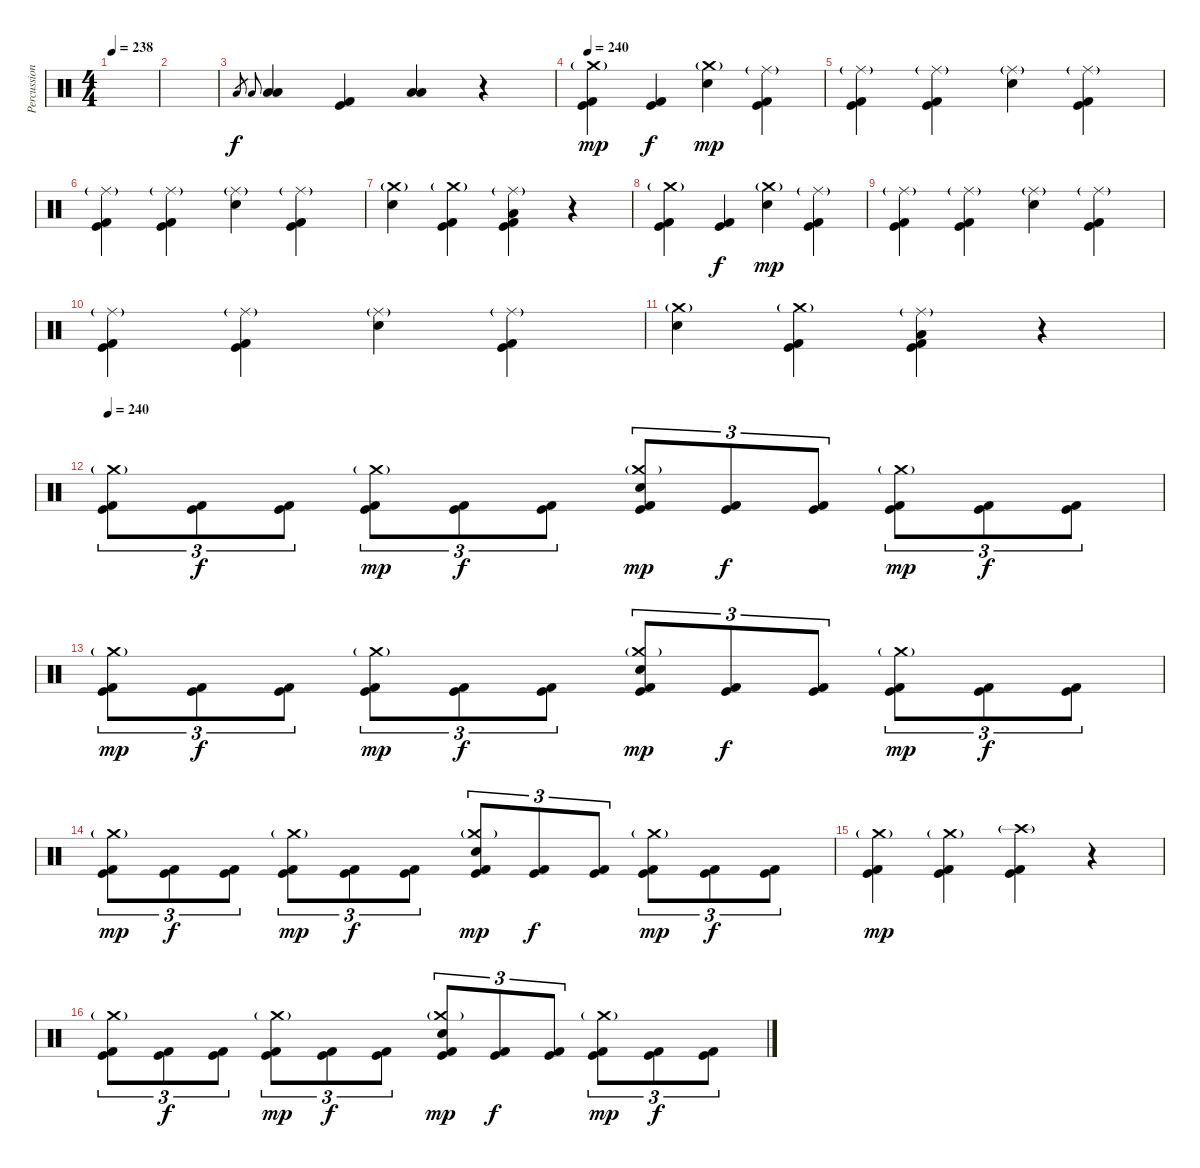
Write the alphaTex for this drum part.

\track ("Percussion" "Percussion") {instrument percussion}
\staff {score}
\articulation defaults
\ts (4 4)
\tempo 238
\clef neutral
\ks c
|
|
"Low Tom (hit)".16{gr dy f} "Low Floor Tom (hit)".16{gr onbeat} ("Low Tom (hit)" "Low Floor Tom (hit)").4 ("Kick (hit)" "Kick (hit) 2").4 ("Low Tom (hit)" "Low Floor Tom (hit)").4 r.4 |
\tempo 240
("Crash medium (hit)"{g} "Kick (hit)" "Kick (hit) 2").4{dy mp} ("Kick (hit)" "Kick (hit) 2").4{dy f} ("Crash medium (hit)"{g} "Electric Snare (hit)").4{dy mp} ("Ride (middle)"{g} "Kick (hit)" "Kick (hit) 2").4 |
("Ride (middle)"{g} "Kick (hit)" "Kick (hit) 2").4 ("Ride (middle)"{g} "Kick (hit)" "Kick (hit) 2").4 ("Ride (middle)"{g} "Electric Snare (hit)").4 ("Ride (middle)"{g} "Kick (hit)" "Kick (hit) 2").4 |
("Ride (middle)"{g} "Kick (hit)" "Kick (hit) 2").4 ("Ride (middle)"{g} "Kick (hit)" "Kick (hit) 2").4 ("Ride (middle)"{g} "Electric Snare (hit)").4 ("Ride (middle)"{g} "Kick (hit)" "Kick (hit) 2").4 |
("Crash medium (hit)"{g} "Electric Snare (hit)").4 ("Crash medium (hit)"{g} "Kick (hit)" "Kick (hit) 2").4 ("Ride (middle)"{g} "Low Tom (hit)" "Kick (hit)" "Kick (hit) 2").4 r.4 |
("Crash medium (hit)"{g} "Kick (hit)" "Kick (hit) 2").4 ("Kick (hit)" "Kick (hit) 2").4{dy f} ("Crash medium (hit)"{g} "Electric Snare (hit)").4{dy mp} ("Ride (middle)"{g} "Kick (hit)" "Kick (hit) 2").4 |
("Ride (middle)"{g} "Kick (hit)" "Kick (hit) 2").4 ("Ride (middle)"{g} "Kick (hit)" "Kick (hit) 2").4 ("Ride (middle)"{g} "Electric Snare (hit)").4 ("Ride (middle)"{g} "Kick (hit)" "Kick (hit) 2").4 |
("Ride (middle)"{g} "Kick (hit)" "Kick (hit) 2").4 ("Ride (middle)"{g} "Kick (hit)" "Kick (hit) 2").4 ("Ride (middle)"{g} "Electric Snare (hit)").4 ("Ride (middle)"{g} "Kick (hit)" "Kick (hit) 2").4 |
("Crash medium (hit)"{g} "Electric Snare (hit)").4 ("Crash medium (hit)"{g} "Kick (hit)" "Kick (hit) 2").4 ("Ride (middle)"{g} "Low Tom (hit)" "Kick (hit)" "Kick (hit) 2").4 r.4 |
\tempo 240
("Crash medium (hit)"{g} "Kick (hit)" "Kick (hit) 2").8{tu (3 2)} ("Kick (hit)" "Kick (hit) 2").8{tu (3 2) dy f} ("Kick (hit)" "Kick (hit) 2").8{tu (3 2)} ("Crash medium (hit)"{g} "Kick (hit)" "Kick (hit) 2").8{tu (3 2) dy mp} ("Kick (hit)" "Kick (hit) 2").8{tu (3 2) dy f} ("Kick (hit)" "Kick (hit) 2").8{tu (3 2)} ("Crash medium (hit)"{g} "Electric Snare (hit)" "Kick (hit)" "Kick (hit) 2").8{tu (3 2) dy mp} ("Kick (hit)" "Kick (hit) 2").8{tu (3 2) dy f} ("Kick (hit)" "Kick (hit) 2").8{tu (3 2)} ("Crash medium (hit)"{g} "Kick (hit)" "Kick (hit) 2").8{tu (3 2) dy mp} ("Kick (hit)" "Kick (hit) 2").8{tu (3 2) dy f} ("Kick (hit)" "Kick (hit) 2").8{tu (3 2)} |
("Crash medium (hit)"{g} "Kick (hit)" "Kick (hit) 2").8{tu (3 2) dy mp} ("Kick (hit)" "Kick (hit) 2").8{tu (3 2) dy f} ("Kick (hit)" "Kick (hit) 2").8{tu (3 2)} ("Crash medium (hit)"{g} "Kick (hit)" "Kick (hit) 2").8{tu (3 2) dy mp} ("Kick (hit)" "Kick (hit) 2").8{tu (3 2) dy f} ("Kick (hit)" "Kick (hit) 2").8{tu (3 2)} ("Crash medium (hit)"{g} "Electric Snare (hit)" "Kick (hit)" "Kick (hit) 2").8{tu (3 2) dy mp} ("Kick (hit)" "Kick (hit) 2").8{tu (3 2) dy f} ("Kick (hit)" "Kick (hit) 2").8{tu (3 2)} ("Crash medium (hit)"{g} "Kick (hit)" "Kick (hit) 2").8{tu (3 2) dy mp} ("Kick (hit)" "Kick (hit) 2").8{tu (3 2) dy f} ("Kick (hit)" "Kick (hit) 2").8{tu (3 2)} |
("Crash medium (hit)"{g} "Kick (hit)" "Kick (hit) 2").8{tu (3 2) dy mp} ("Kick (hit)" "Kick (hit) 2").8{tu (3 2) dy f} ("Kick (hit)" "Kick (hit) 2").8{tu (3 2)} ("Crash medium (hit)"{g} "Kick (hit)" "Kick (hit) 2").8{tu (3 2) dy mp} ("Kick (hit)" "Kick (hit) 2").8{tu (3 2) dy f} ("Kick (hit)" "Kick (hit) 2").8{tu (3 2)} ("Crash medium (hit)"{g} "Electric Snare (hit)" "Kick (hit)" "Kick (hit) 2").8{tu (3 2) dy mp} ("Kick (hit)" "Kick (hit) 2").8{tu (3 2) dy f} ("Kick (hit)" "Kick (hit) 2").8{tu (3 2)} ("Crash medium (hit)"{g} "Kick (hit)" "Kick (hit) 2").8{tu (3 2) dy mp} ("Kick (hit)" "Kick (hit) 2").8{tu (3 2) dy f} ("Kick (hit)" "Kick (hit) 2").8{tu (3 2)} |
("Crash medium (hit)"{g} "Kick (hit)" "Kick (hit) 2").4{dy mp} ("Crash medium (hit)"{g} "Kick (hit)" "Kick (hit) 2").4 ("Crash high (hit)"{g} "Kick (hit)" "Kick (hit) 2").4 r.4 |
("Crash medium (hit)"{g} "Kick (hit)" "Kick (hit) 2").8{tu (3 2)} ("Kick (hit)" "Kick (hit) 2").8{tu (3 2) dy f} ("Kick (hit)" "Kick (hit) 2").8{tu (3 2)} ("Crash medium (hit)"{g} "Kick (hit)" "Kick (hit) 2").8{tu (3 2) dy mp} ("Kick (hit)" "Kick (hit) 2").8{tu (3 2) dy f} ("Kick (hit)" "Kick (hit) 2").8{tu (3 2)} ("Crash medium (hit)"{g} "Electric Snare (hit)" "Kick (hit)" "Kick (hit) 2").8{tu (3 2) dy mp} ("Kick (hit)" "Kick (hit) 2").8{tu (3 2) dy f} ("Kick (hit)" "Kick (hit) 2").8{tu (3 2)} ("Crash medium (hit)"{g} "Kick (hit)" "Kick (hit) 2").8{tu (3 2) dy mp} ("Kick (hit)" "Kick (hit) 2").8{tu (3 2) dy f} ("Kick (hit)" "Kick (hit) 2").8{tu (3 2)}
